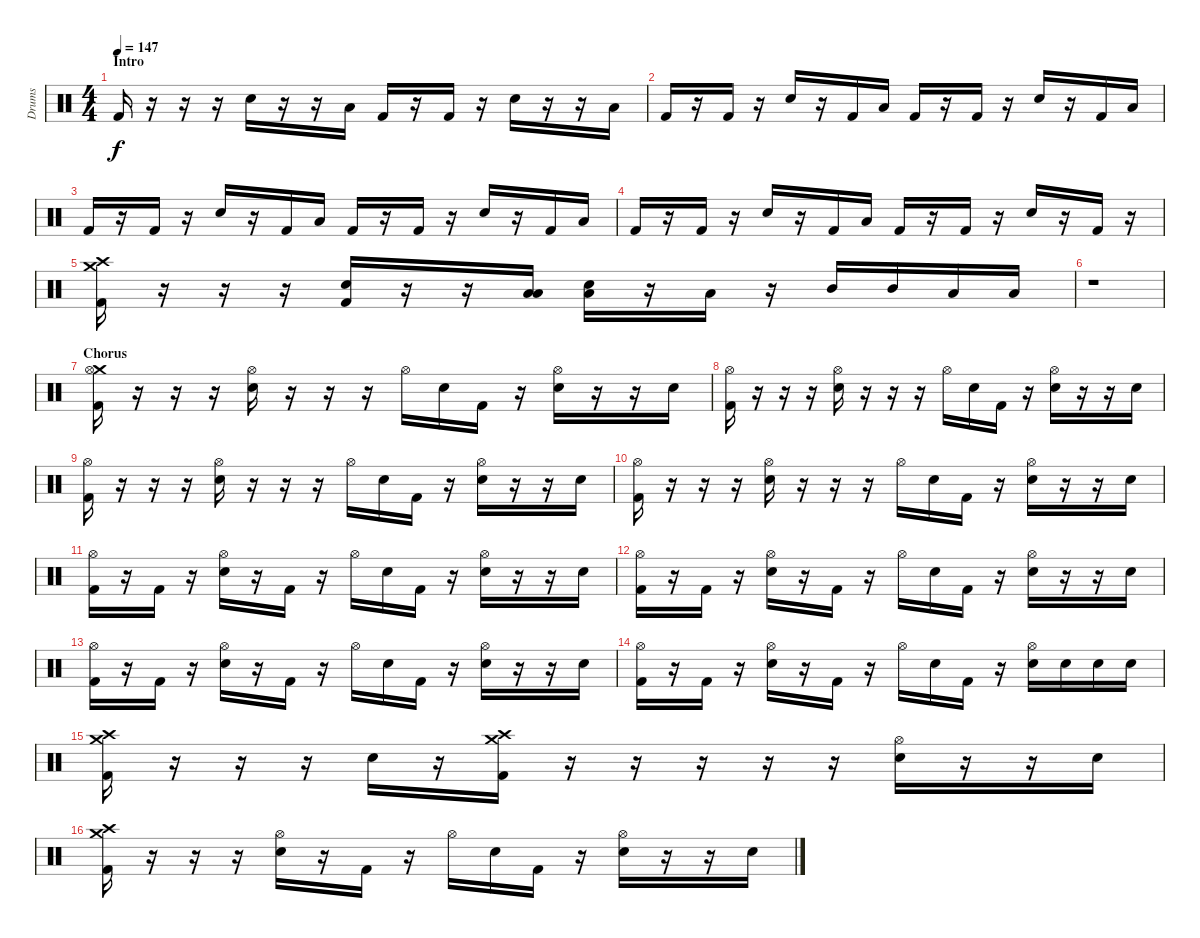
\track ("Drums" "Drums") {instrument percussion}
\staff {score}
\articulation defaults
\ts (4 4)
\section ("" "Intro")
\tempo 147
\clef neutral
\ks c "Kick (hit) 2".16{dy f}
r.16 r.16 r.16 "Snare (hit) 2".16 r.16 r.16 "Low Tom (hit)".16 "Kick (hit) 2".16 r.16 "Kick (hit) 2".16 r.16 "Snare (hit) 2".16 r.16 r.16 "Low Tom (hit)".16 |
"Kick (hit) 2".16 r.16 "Kick (hit) 2".16 r.16 "Snare (hit) 2".16 r.16 "Kick (hit) 2".16 "Low Tom (hit)".16 "Kick (hit) 2".16 r.16 "Kick (hit) 2".16 r.16 "Snare (hit) 2".16 r.16 "Kick (hit) 2".16 "Low Tom (hit)".16 |
"Kick (hit) 2".16 r.16 "Kick (hit) 2".16 r.16 "Snare (hit) 2".16 r.16 "Kick (hit) 2".16 "Low Tom (hit)".16 "Kick (hit) 2".16 r.16 "Kick (hit) 2".16 r.16 "Snare (hit) 2".16 r.16 "Kick (hit) 2".16 "Low Tom (hit)".16 |
"Kick (hit) 2".16 r.16 "Kick (hit) 2".16 r.16 "Snare (hit) 2".16 r.16 "Kick (hit) 2".16 "Low Tom (hit)".16 "Kick (hit) 2".16 r.16 "Kick (hit) 2".16 r.16 "Snare (hit) 2".16 r.16 "Kick (hit) 2".16 r.16 |
("Crash high (hit)" "Crash medium (hit)" "Kick (hit) 2").16 r.16 r.16 r.16 ("Snare (hit) 2" "Kick (hit) 2").16 r.16 r.16 ("Low Tom (hit)" "Low Tom (hit)").16 ("Low Tom (hit)" "Snare (hit) 2").16 r.16 "Low Tom (hit)".16 r.16 "Mid Tom (hit)".16 "Mid Tom (hit)".16 "Low Tom (hit)".16 "Low Tom (hit)".16 |
r.1 |
\section ("" "Chorus")
("Crash medium (hit)" "Hi-Hat (open)" "Kick (hit) 2").16 r.16 r.16 r.16 ("Hi-Hat (open)" "Snare (hit) 2").16 r.16 r.16 r.16 "Hi-Hat (open)".16 "Snare (hit) 2".16 "Kick (hit) 2".16 r.16 ("Hi-Hat (open)" "Snare (hit) 2").16 r.16 r.16 "Snare (hit) 2".16 |
("Hi-Hat (open)" "Kick (hit) 2").16 r.16 r.16 r.16 ("Hi-Hat (open)" "Snare (hit) 2").16 r.16 r.16 r.16 "Hi-Hat (open)".16 "Snare (hit) 2".16 "Kick (hit) 2".16 r.16 ("Hi-Hat (open)" "Snare (hit) 2").16 r.16 r.16 "Snare (hit) 2".16 |
("Hi-Hat (open)" "Kick (hit) 2").16 r.16 r.16 r.16 ("Hi-Hat (open)" "Snare (hit) 2").16 r.16 r.16 r.16 "Hi-Hat (open)".16 "Snare (hit) 2".16 "Kick (hit) 2".16 r.16 ("Hi-Hat (open)" "Snare (hit) 2").16 r.16 r.16 "Snare (hit) 2".16 |
("Hi-Hat (open)" "Kick (hit) 2").16 r.16 r.16 r.16 ("Hi-Hat (open)" "Snare (hit) 2").16 r.16 r.16 r.16 "Hi-Hat (open)".16 "Snare (hit) 2".16 "Kick (hit) 2".16 r.16 ("Hi-Hat (open)" "Snare (hit) 2").16 r.16 r.16 "Snare (hit) 2".16 |
("Hi-Hat (open)" "Kick (hit) 2").16 r.16 "Kick (hit) 2".16 r.16 ("Hi-Hat (open)" "Snare (hit) 2").16 r.16 "Kick (hit) 2".16 r.16 "Hi-Hat (open)".16 "Snare (hit) 2".16 "Kick (hit) 2".16 r.16 ("Hi-Hat (open)" "Snare (hit) 2").16 r.16 r.16 "Snare (hit) 2".16 |
("Hi-Hat (open)" "Kick (hit) 2").16 r.16 "Kick (hit) 2".16 r.16 ("Hi-Hat (open)" "Snare (hit) 2").16 r.16 "Kick (hit) 2".16 r.16 "Hi-Hat (open)".16 "Snare (hit) 2".16 "Kick (hit) 2".16 r.16 ("Hi-Hat (open)" "Snare (hit) 2").16 r.16 r.16 "Snare (hit) 2".16 |
("Hi-Hat (open)" "Kick (hit) 2").16 r.16 "Kick (hit) 2".16 r.16 ("Hi-Hat (open)" "Snare (hit) 2").16 r.16 "Kick (hit) 2".16 r.16 "Hi-Hat (open)".16 "Snare (hit) 2".16 "Kick (hit) 2".16 r.16 ("Hi-Hat (open)" "Snare (hit) 2").16 r.16 r.16 "Snare (hit) 2".16 |
("Hi-Hat (open)" "Kick (hit) 2").16 r.16 "Kick (hit) 2".16 r.16 ("Hi-Hat (open)" "Snare (hit) 2").16 r.16 "Kick (hit) 2".16 r.16 "Hi-Hat (open)".16 "Snare (hit) 2".16 "Kick (hit) 2".16 r.16 ("Hi-Hat (open)" "Snare (hit) 2").16 "Snare (hit) 2".16 "Snare (hit) 2".16 "Snare (hit) 2".16 |
("Crash high (hit)" "Crash medium (hit)" "Kick (hit) 2").16 r.16 r.16 r.16 "Snare (hit) 2".16 r.16 ("Crash high (hit)" "Crash medium (hit)" "Kick (hit) 2").16 r.16 r.16 r.16 r.16 r.16 ("Hi-Hat (open)" "Snare (hit) 2").16 r.16 r.16 "Snare (hit) 2".16 |
("Crash high (hit)" "Crash medium (hit)" "Kick (hit) 2").16 r.16 r.16 r.16 ("Hi-Hat (open)" "Snare (hit) 2").16 r.16 "Kick (hit) 2".16 r.16 "Hi-Hat (open)".16 "Snare (hit) 2".16 "Kick (hit) 2".16 r.16 ("Hi-Hat (open)" "Snare (hit) 2").16 r.16 r.16 "Snare (hit) 2".16
